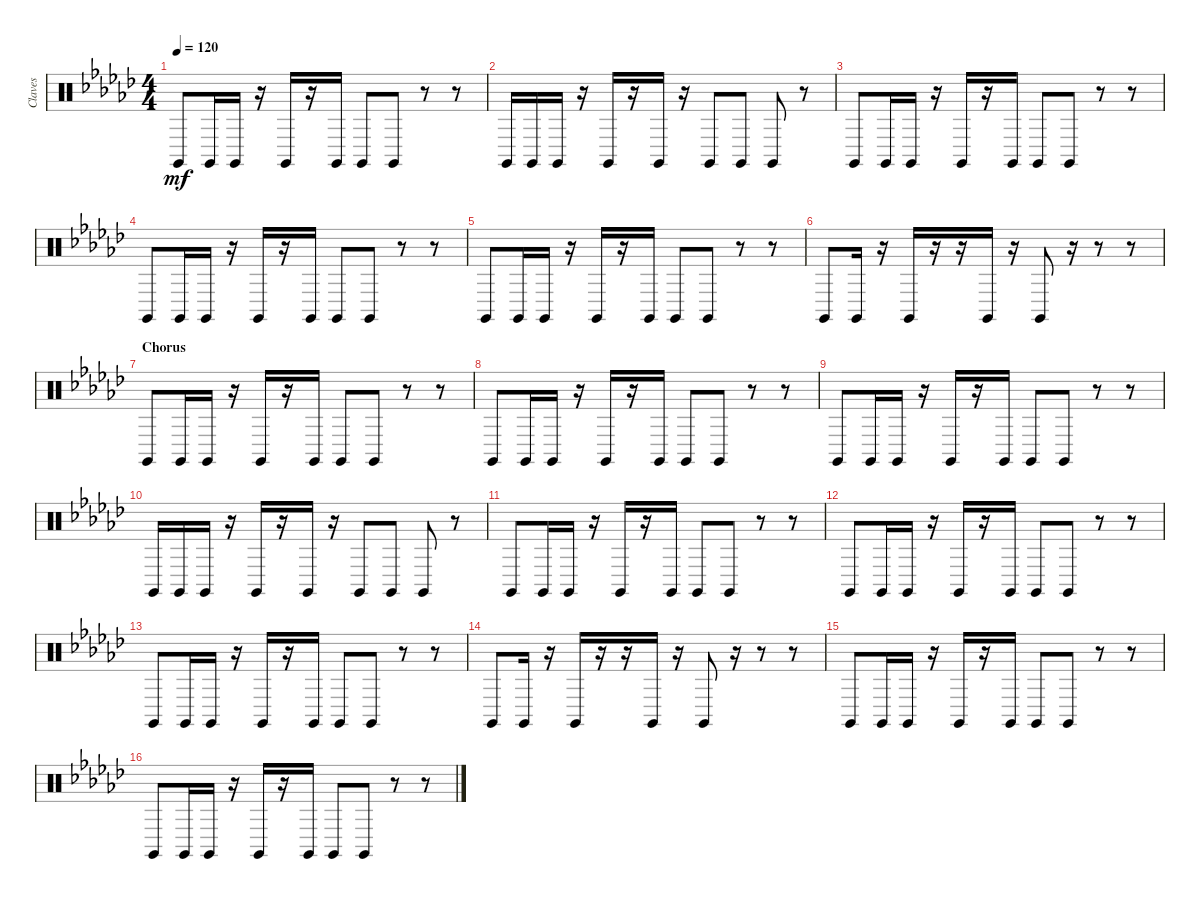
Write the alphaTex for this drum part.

\track ("Claves" "Claves") {instrument percussion}
\staff {score}
\articulation defaults
\ts (4 4)
\tempo 120
\clef neutral
\ks ebminor "Claves (hit)".8{dy mf} "Claves (hit)".16 "Claves (hit)".16
r.16 "Claves (hit)".16 r.16 "Claves (hit)".16 "Claves (hit)".8 "Claves (hit)".8 r.8 r.8 |
"Claves (hit)".16 "Claves (hit)".16 "Claves (hit)".16 r.16 "Claves (hit)".16 r.16 "Claves (hit)".16 r.16 "Claves (hit)".8 "Claves (hit)".8 "Claves (hit)".8 r.8 |
"Claves (hit)".8 "Claves (hit)".16 "Claves (hit)".16 r.16 "Claves (hit)".16 r.16 "Claves (hit)".16 "Claves (hit)".8 "Claves (hit)".8 r.8 r.8 |
"Claves (hit)".8 "Claves (hit)".16 "Claves (hit)".16 r.16 "Claves (hit)".16 r.16 "Claves (hit)".16 "Claves (hit)".8 "Claves (hit)".8 r.8 r.8 |
"Claves (hit)".8 "Claves (hit)".16 "Claves (hit)".16 r.16 "Claves (hit)".16 r.16 "Claves (hit)".16 "Claves (hit)".8 "Claves (hit)".8 r.8 r.8 |
"Claves (hit)".8 "Claves (hit)".16 r.16 "Claves (hit)".16 r.16 r.16 "Claves (hit)".16 r.16 "Claves (hit)".8 r.16 r.8 r.8 |
\section ("" "Chorus")
"Claves (hit)".8 "Claves (hit)".16 "Claves (hit)".16 r.16 "Claves (hit)".16 r.16 "Claves (hit)".16 "Claves (hit)".8 "Claves (hit)".8 r.8 r.8 |
"Claves (hit)".8 "Claves (hit)".16 "Claves (hit)".16 r.16 "Claves (hit)".16 r.16 "Claves (hit)".16 "Claves (hit)".8 "Claves (hit)".8 r.8 r.8 |
"Claves (hit)".8 "Claves (hit)".16 "Claves (hit)".16 r.16 "Claves (hit)".16 r.16 "Claves (hit)".16 "Claves (hit)".8 "Claves (hit)".8 r.8 r.8 |
"Claves (hit)".16 "Claves (hit)".16 "Claves (hit)".16 r.16 "Claves (hit)".16 r.16 "Claves (hit)".16 r.16 "Claves (hit)".8 "Claves (hit)".8 "Claves (hit)".8 r.8 |
"Claves (hit)".8 "Claves (hit)".16 "Claves (hit)".16 r.16 "Claves (hit)".16 r.16 "Claves (hit)".16 "Claves (hit)".8 "Claves (hit)".8 r.8 r.8 |
"Claves (hit)".8 "Claves (hit)".16 "Claves (hit)".16 r.16 "Claves (hit)".16 r.16 "Claves (hit)".16 "Claves (hit)".8 "Claves (hit)".8 r.8 r.8 |
"Claves (hit)".8 "Claves (hit)".16 "Claves (hit)".16 r.16 "Claves (hit)".16 r.16 "Claves (hit)".16 "Claves (hit)".8 "Claves (hit)".8 r.8 r.8 |
"Claves (hit)".8 "Claves (hit)".16 r.16 "Claves (hit)".16 r.16 r.16 "Claves (hit)".16 r.16 "Claves (hit)".8 r.16 r.8 r.8 |
"Claves (hit)".8 "Claves (hit)".16 "Claves (hit)".16 r.16 "Claves (hit)".16 r.16 "Claves (hit)".16 "Claves (hit)".8 "Claves (hit)".8 r.8 r.8 |
"Claves (hit)".8 "Claves (hit)".16 "Claves (hit)".16 r.16 "Claves (hit)".16 r.16 "Claves (hit)".16 "Claves (hit)".8 "Claves (hit)".8 r.8 r.8
